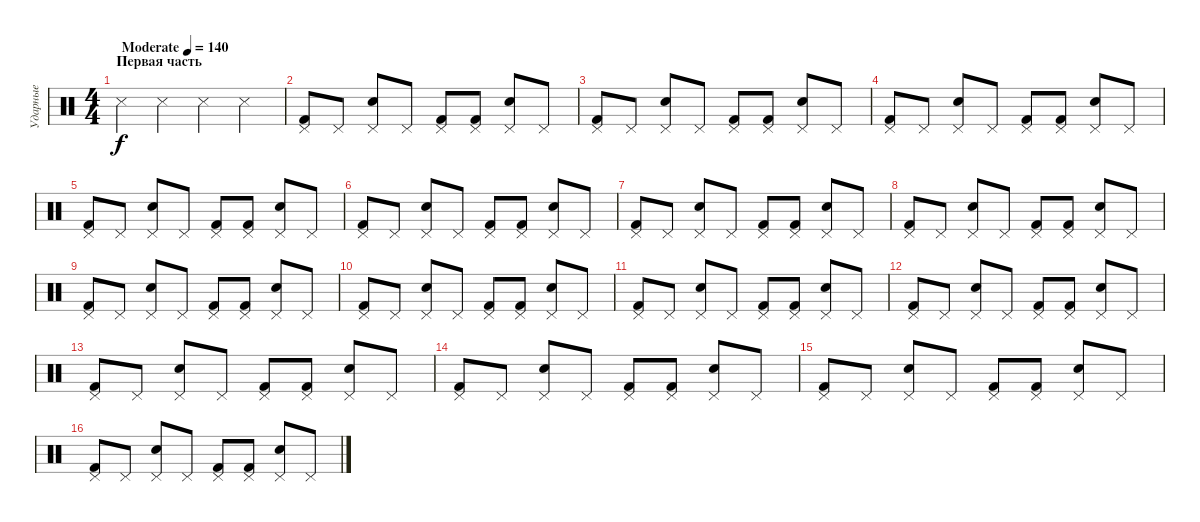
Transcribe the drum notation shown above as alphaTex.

\track ("Ударные" "Ударные") {instrument percussion}
\staff {score}
\articulation defaults
\ts (4 4)
\section ("" "Первая часть ")
\tempo (140 "Moderate")
\clef neutral
\ks c "Snare (side stick) 3".4{dy f} "Snare (side stick) 3".4 "Snare (side stick) 3".4 "Snare (side stick) 3".4
|
("Pedal Hi-Hat (hit)" "Kick (hit) 2").8 "Pedal Hi-Hat (hit)".8 ("Pedal Hi-Hat (hit)" "Electric Snare (hit)").8 "Pedal Hi-Hat (hit)".8 ("Pedal Hi-Hat (hit)" "Kick (hit) 2").8 ("Pedal Hi-Hat (hit)" "Kick (hit) 2").8 ("Pedal Hi-Hat (hit)" "Electric Snare (hit)").8 "Pedal Hi-Hat (hit)".8 |
("Pedal Hi-Hat (hit)" "Kick (hit) 2").8 "Pedal Hi-Hat (hit)".8 ("Pedal Hi-Hat (hit)" "Electric Snare (hit)").8 "Pedal Hi-Hat (hit)".8 ("Pedal Hi-Hat (hit)" "Kick (hit) 2").8 ("Pedal Hi-Hat (hit)" "Kick (hit) 2").8 ("Pedal Hi-Hat (hit)" "Electric Snare (hit)").8 "Pedal Hi-Hat (hit)".8 |
("Pedal Hi-Hat (hit)" "Kick (hit) 2").8 "Pedal Hi-Hat (hit)".8 ("Pedal Hi-Hat (hit)" "Electric Snare (hit)").8 "Pedal Hi-Hat (hit)".8 ("Pedal Hi-Hat (hit)" "Kick (hit) 2").8 ("Pedal Hi-Hat (hit)" "Kick (hit) 2").8 ("Pedal Hi-Hat (hit)" "Electric Snare (hit)").8 "Pedal Hi-Hat (hit)".8 |
("Pedal Hi-Hat (hit)" "Kick (hit) 2").8 "Pedal Hi-Hat (hit)".8 ("Pedal Hi-Hat (hit)" "Electric Snare (hit)").8 "Pedal Hi-Hat (hit)".8 ("Pedal Hi-Hat (hit)" "Kick (hit) 2").8 ("Pedal Hi-Hat (hit)" "Kick (hit) 2").8 ("Pedal Hi-Hat (hit)" "Electric Snare (hit)").8 "Pedal Hi-Hat (hit)".8 |
("Pedal Hi-Hat (hit)" "Kick (hit) 2").8 "Pedal Hi-Hat (hit)".8 ("Pedal Hi-Hat (hit)" "Electric Snare (hit)").8 "Pedal Hi-Hat (hit)".8 ("Pedal Hi-Hat (hit)" "Kick (hit) 2").8 ("Pedal Hi-Hat (hit)" "Kick (hit) 2").8 ("Pedal Hi-Hat (hit)" "Electric Snare (hit)").8 "Pedal Hi-Hat (hit)".8 |
("Pedal Hi-Hat (hit)" "Kick (hit) 2").8 "Pedal Hi-Hat (hit)".8 ("Pedal Hi-Hat (hit)" "Electric Snare (hit)").8 "Pedal Hi-Hat (hit)".8 ("Pedal Hi-Hat (hit)" "Kick (hit) 2").8 ("Pedal Hi-Hat (hit)" "Kick (hit) 2").8 ("Pedal Hi-Hat (hit)" "Electric Snare (hit)").8 "Pedal Hi-Hat (hit)".8 |
("Pedal Hi-Hat (hit)" "Kick (hit) 2").8 "Pedal Hi-Hat (hit)".8 ("Pedal Hi-Hat (hit)" "Electric Snare (hit)").8 "Pedal Hi-Hat (hit)".8 ("Pedal Hi-Hat (hit)" "Kick (hit) 2").8 ("Pedal Hi-Hat (hit)" "Kick (hit) 2").8 ("Pedal Hi-Hat (hit)" "Electric Snare (hit)").8 "Pedal Hi-Hat (hit)".8 |
("Pedal Hi-Hat (hit)" "Kick (hit) 2").8 "Pedal Hi-Hat (hit)".8 ("Pedal Hi-Hat (hit)" "Electric Snare (hit)").8 "Pedal Hi-Hat (hit)".8 ("Pedal Hi-Hat (hit)" "Kick (hit) 2").8 ("Pedal Hi-Hat (hit)" "Kick (hit) 2").8 ("Pedal Hi-Hat (hit)" "Electric Snare (hit)").8 "Pedal Hi-Hat (hit)".8 |
("Pedal Hi-Hat (hit)" "Kick (hit) 2").8 "Pedal Hi-Hat (hit)".8 ("Pedal Hi-Hat (hit)" "Electric Snare (hit)").8 "Pedal Hi-Hat (hit)".8 ("Pedal Hi-Hat (hit)" "Kick (hit) 2").8 ("Pedal Hi-Hat (hit)" "Kick (hit) 2").8 ("Pedal Hi-Hat (hit)" "Electric Snare (hit)").8 "Pedal Hi-Hat (hit)".8 |
("Pedal Hi-Hat (hit)" "Kick (hit) 2").8 "Pedal Hi-Hat (hit)".8 ("Pedal Hi-Hat (hit)" "Electric Snare (hit)").8 "Pedal Hi-Hat (hit)".8 ("Pedal Hi-Hat (hit)" "Kick (hit) 2").8 ("Pedal Hi-Hat (hit)" "Kick (hit) 2").8 ("Pedal Hi-Hat (hit)" "Electric Snare (hit)").8 "Pedal Hi-Hat (hit)".8 |
("Pedal Hi-Hat (hit)" "Kick (hit) 2").8 "Pedal Hi-Hat (hit)".8 ("Pedal Hi-Hat (hit)" "Electric Snare (hit)").8 "Pedal Hi-Hat (hit)".8 ("Pedal Hi-Hat (hit)" "Kick (hit) 2").8 ("Pedal Hi-Hat (hit)" "Kick (hit) 2").8 ("Pedal Hi-Hat (hit)" "Electric Snare (hit)").8 "Pedal Hi-Hat (hit)".8 |
("Pedal Hi-Hat (hit)" "Kick (hit) 2").8 "Pedal Hi-Hat (hit)".8 ("Pedal Hi-Hat (hit)" "Electric Snare (hit)").8 "Pedal Hi-Hat (hit)".8 ("Pedal Hi-Hat (hit)" "Kick (hit) 2").8 ("Pedal Hi-Hat (hit)" "Kick (hit) 2").8 ("Pedal Hi-Hat (hit)" "Electric Snare (hit)").8 "Pedal Hi-Hat (hit)".8 |
("Pedal Hi-Hat (hit)" "Kick (hit) 2").8 "Pedal Hi-Hat (hit)".8 ("Pedal Hi-Hat (hit)" "Electric Snare (hit)").8 "Pedal Hi-Hat (hit)".8 ("Pedal Hi-Hat (hit)" "Kick (hit) 2").8 ("Pedal Hi-Hat (hit)" "Kick (hit) 2").8 ("Pedal Hi-Hat (hit)" "Electric Snare (hit)").8 "Pedal Hi-Hat (hit)".8 |
("Pedal Hi-Hat (hit)" "Kick (hit) 2").8 "Pedal Hi-Hat (hit)".8 ("Pedal Hi-Hat (hit)" "Electric Snare (hit)").8 "Pedal Hi-Hat (hit)".8 ("Pedal Hi-Hat (hit)" "Kick (hit) 2").8 ("Pedal Hi-Hat (hit)" "Kick (hit) 2").8 ("Pedal Hi-Hat (hit)" "Electric Snare (hit)").8 "Pedal Hi-Hat (hit)".8 |
("Pedal Hi-Hat (hit)" "Kick (hit) 2").8 "Pedal Hi-Hat (hit)".8 ("Pedal Hi-Hat (hit)" "Electric Snare (hit)").8 "Pedal Hi-Hat (hit)".8 ("Pedal Hi-Hat (hit)" "Kick (hit) 2").8 ("Pedal Hi-Hat (hit)" "Kick (hit) 2").8 ("Pedal Hi-Hat (hit)" "Electric Snare (hit)").8 "Pedal Hi-Hat (hit)".8
